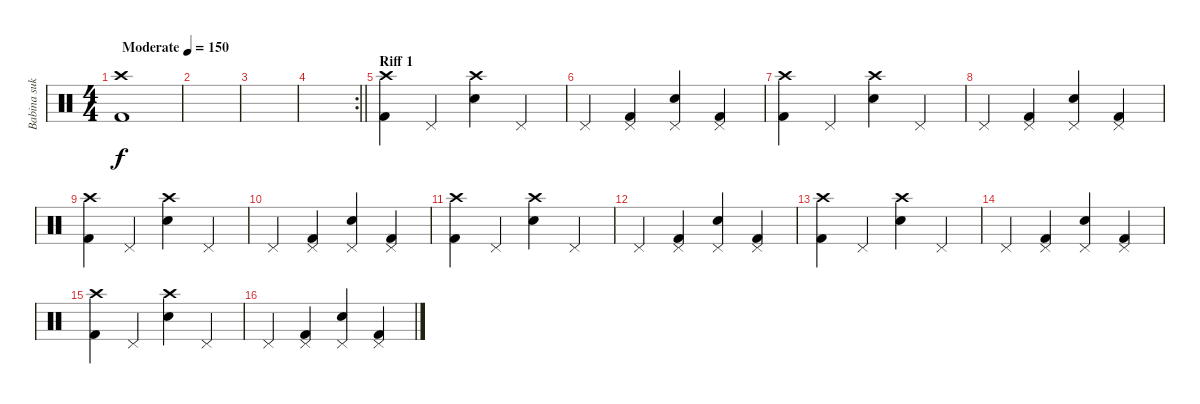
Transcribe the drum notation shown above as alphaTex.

\track ("Babina sukrvica - Dragan" "Babina suk") {instrument percussion}
\staff {score}
\articulation defaults
\ts (4 4)
\tempo (150 "Moderate")
\clef neutral
\ks c
("Crash high (hit)" "Kick (hit) 2").1{dy f} |
|
|
\rc 2
\barLineRight lightlight
|
\section ("" "Riff 1")
("Crash high (hit)" "Kick (hit) 2").4 "Pedal Hi-Hat (hit)".4 ("Crash high (hit)" "Electric Snare (hit)").4 "Pedal Hi-Hat (hit)".4 |
"Pedal Hi-Hat (hit)".4 ("Pedal Hi-Hat (hit)" "Kick (hit) 2").4 ("Pedal Hi-Hat (hit)" "Electric Snare (hit)").4 ("Pedal Hi-Hat (hit)" "Kick (hit) 2").4 |
("Crash high (hit)" "Kick (hit) 2").4 "Pedal Hi-Hat (hit)".4 ("Crash high (hit)" "Electric Snare (hit)").4 "Pedal Hi-Hat (hit)".4 |
"Pedal Hi-Hat (hit)".4 ("Pedal Hi-Hat (hit)" "Kick (hit) 2").4 ("Pedal Hi-Hat (hit)" "Electric Snare (hit)").4 ("Pedal Hi-Hat (hit)" "Kick (hit) 2").4 |
("Crash high (hit)" "Kick (hit) 2").4 "Pedal Hi-Hat (hit)".4 ("Crash high (hit)" "Electric Snare (hit)").4 "Pedal Hi-Hat (hit)".4 |
"Pedal Hi-Hat (hit)".4 ("Pedal Hi-Hat (hit)" "Kick (hit) 2").4 ("Pedal Hi-Hat (hit)" "Electric Snare (hit)").4 ("Pedal Hi-Hat (hit)" "Kick (hit) 2").4 |
("Crash high (hit)" "Kick (hit) 2").4 "Pedal Hi-Hat (hit)".4 ("Crash high (hit)" "Electric Snare (hit)").4 "Pedal Hi-Hat (hit)".4 |
"Pedal Hi-Hat (hit)".4 ("Pedal Hi-Hat (hit)" "Kick (hit) 2").4 ("Pedal Hi-Hat (hit)" "Electric Snare (hit)").4 ("Pedal Hi-Hat (hit)" "Kick (hit) 2").4 |
("Crash high (hit)" "Kick (hit) 2").4 "Pedal Hi-Hat (hit)".4 ("Crash high (hit)" "Electric Snare (hit)").4 "Pedal Hi-Hat (hit)".4 |
"Pedal Hi-Hat (hit)".4 ("Pedal Hi-Hat (hit)" "Kick (hit) 2").4 ("Pedal Hi-Hat (hit)" "Electric Snare (hit)").4 ("Pedal Hi-Hat (hit)" "Kick (hit) 2").4 |
("Crash high (hit)" "Kick (hit) 2").4 "Pedal Hi-Hat (hit)".4 ("Crash high (hit)" "Electric Snare (hit)").4 "Pedal Hi-Hat (hit)".4 |
"Pedal Hi-Hat (hit)".4 ("Pedal Hi-Hat (hit)" "Kick (hit) 2").4 ("Pedal Hi-Hat (hit)" "Electric Snare (hit)").4 ("Pedal Hi-Hat (hit)" "Kick (hit) 2").4
